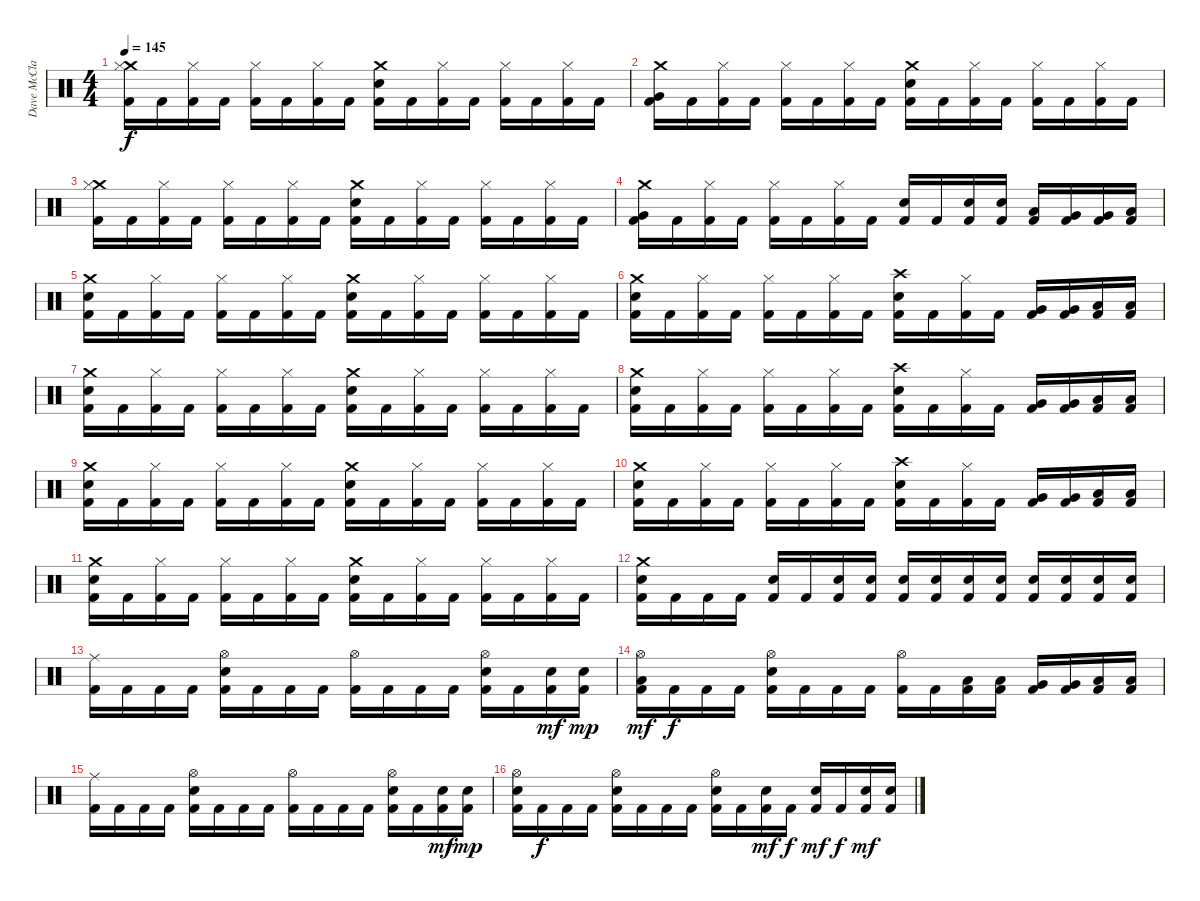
\track ("Dave McClain" "Dave McCla") {instrument percussion}
\staff {score}
\articulation defaults
\ts (4 4)
\tempo 145
\clef neutral
\ks c
("Crash medium (hit)" "Hi-Hat (closed)" "Kick (hit) 2").16{dy f} "Kick (hit) 2".16 ("Hi-Hat (closed)" "Kick (hit) 2").16 "Kick (hit) 2".16 ("Hi-Hat (closed)" "Kick (hit) 2").16 "Kick (hit) 2".16 ("Hi-Hat (closed)" "Kick (hit) 2").16 "Kick (hit) 2".16 ("Crash medium (hit)" "Snare (hit) 2" "Kick (hit) 2").16 "Kick (hit) 2".16 ("Hi-Hat (closed)" "Kick (hit) 2").16 "Kick (hit) 2".16 ("Hi-Hat (closed)" "Kick (hit) 2").16 "Kick (hit) 2".16 ("Hi-Hat (closed)" "Kick (hit) 2").16 "Kick (hit) 2".16 |
("Crash medium (hit)" "Very Low Tom (hit)" "Kick (hit) 2").16 "Kick (hit) 2".16 ("Hi-Hat (closed)" "Kick (hit) 2").16 "Kick (hit) 2".16 ("Hi-Hat (closed)" "Kick (hit) 2").16 "Kick (hit) 2".16 ("Hi-Hat (closed)" "Kick (hit) 2").16 "Kick (hit) 2".16 ("Crash medium (hit)" "Snare (hit) 2" "Kick (hit) 2").16 "Kick (hit) 2".16 ("Hi-Hat (closed)" "Kick (hit) 2").16 "Kick (hit) 2".16 ("Hi-Hat (closed)" "Kick (hit) 2").16 "Kick (hit) 2".16 ("Hi-Hat (closed)" "Kick (hit) 2").16 "Kick (hit) 2".16 |
("Crash medium (hit)" "Hi-Hat (closed)" "Kick (hit) 2").16 "Kick (hit) 2".16 ("Hi-Hat (closed)" "Kick (hit) 2").16 "Kick (hit) 2".16 ("Hi-Hat (closed)" "Kick (hit) 2").16 "Kick (hit) 2".16 ("Hi-Hat (closed)" "Kick (hit) 2").16 "Kick (hit) 2".16 ("Crash medium (hit)" "Snare (hit) 2" "Kick (hit) 2").16 "Kick (hit) 2".16 ("Hi-Hat (closed)" "Kick (hit) 2").16 "Kick (hit) 2".16 ("Hi-Hat (closed)" "Kick (hit) 2").16 "Kick (hit) 2".16 ("Hi-Hat (closed)" "Kick (hit) 2").16 "Kick (hit) 2".16 |
("Crash medium (hit)" "Very Low Tom (hit)" "Kick (hit) 2").16 "Kick (hit) 2".16 ("Hi-Hat (closed)" "Kick (hit) 2").16 "Kick (hit) 2".16 ("Hi-Hat (closed)" "Kick (hit) 2").16 "Kick (hit) 2".16 ("Hi-Hat (closed)" "Kick (hit) 2").16 "Kick (hit) 2".16 ("Snare (hit) 2" "Kick (hit) 2").16 "Kick (hit) 2".16 ("Snare (hit) 2" "Kick (hit) 2").16 ("Snare (hit) 2" "Kick (hit) 2").16 ("Low Tom (hit)" "Kick (hit) 2").16 ("Very Low Tom (hit)" "Kick (hit) 2").16 ("Very Low Tom (hit)" "Kick (hit) 2").16 ("Low Floor Tom (hit)" "Kick (hit) 2").16 |
("Crash medium (hit)" "Snare (hit) 2" "Kick (hit) 2").16 "Kick (hit) 2".16 ("Hi-Hat (closed)" "Kick (hit) 2").16 "Kick (hit) 2".16 ("Hi-Hat (closed)" "Kick (hit) 2").16 "Kick (hit) 2".16 ("Hi-Hat (closed)" "Kick (hit) 2").16 "Kick (hit) 2".16 ("Crash medium (hit)" "Snare (hit) 2" "Kick (hit) 2").16 "Kick (hit) 2".16 ("Hi-Hat (closed)" "Kick (hit) 2").16 "Kick (hit) 2".16 ("Hi-Hat (closed)" "Kick (hit) 2").16 "Kick (hit) 2".16 ("Hi-Hat (closed)" "Kick (hit) 2").16 "Kick (hit) 2".16 |
("Crash medium (hit)" "Snare (hit) 2" "Kick (hit) 2").16 "Kick (hit) 2".16 ("Hi-Hat (closed)" "Kick (hit) 2").16 "Kick (hit) 2".16 ("Hi-Hat (closed)" "Kick (hit) 2").16 "Kick (hit) 2".16 ("Hi-Hat (closed)" "Kick (hit) 2").16 "Kick (hit) 2".16 ("Crash high (hit)" "Snare (hit) 2" "Kick (hit) 2").16 "Kick (hit) 2".16 ("Hi-Hat (closed)" "Kick (hit) 2").16 "Kick (hit) 2".16 ("Very Low Tom (hit)" "Kick (hit) 2").16 ("Very Low Tom (hit)" "Kick (hit) 2").16 ("Low Floor Tom (hit)" "Kick (hit) 2").16 ("Low Floor Tom (hit)" "Kick (hit) 2").16 |
("Crash medium (hit)" "Snare (hit) 2" "Kick (hit) 2").16 "Kick (hit) 2".16 ("Hi-Hat (closed)" "Kick (hit) 2").16 "Kick (hit) 2".16 ("Hi-Hat (closed)" "Kick (hit) 2").16 "Kick (hit) 2".16 ("Hi-Hat (closed)" "Kick (hit) 2").16 "Kick (hit) 2".16 ("Crash medium (hit)" "Snare (hit) 2" "Kick (hit) 2").16 "Kick (hit) 2".16 ("Hi-Hat (closed)" "Kick (hit) 2").16 "Kick (hit) 2".16 ("Hi-Hat (closed)" "Kick (hit) 2").16 "Kick (hit) 2".16 ("Hi-Hat (closed)" "Kick (hit) 2").16 "Kick (hit) 2".16 |
("Crash medium (hit)" "Snare (hit) 2" "Kick (hit) 2").16 "Kick (hit) 2".16 ("Hi-Hat (closed)" "Kick (hit) 2").16 "Kick (hit) 2".16 ("Hi-Hat (closed)" "Kick (hit) 2").16 "Kick (hit) 2".16 ("Hi-Hat (closed)" "Kick (hit) 2").16 "Kick (hit) 2".16 ("Crash high (hit)" "Snare (hit) 2" "Kick (hit) 2").16 "Kick (hit) 2".16 ("Hi-Hat (closed)" "Kick (hit) 2").16 "Kick (hit) 2".16 ("Very Low Tom (hit)" "Kick (hit) 2").16 ("Very Low Tom (hit)" "Kick (hit) 2").16 ("Low Floor Tom (hit)" "Kick (hit) 2").16 ("Low Floor Tom (hit)" "Kick (hit) 2").16 |
("Crash medium (hit)" "Snare (hit) 2" "Kick (hit) 2").16 "Kick (hit) 2".16 ("Hi-Hat (closed)" "Kick (hit) 2").16 "Kick (hit) 2".16 ("Hi-Hat (closed)" "Kick (hit) 2").16 "Kick (hit) 2".16 ("Hi-Hat (closed)" "Kick (hit) 2").16 "Kick (hit) 2".16 ("Crash medium (hit)" "Snare (hit) 2" "Kick (hit) 2").16 "Kick (hit) 2".16 ("Hi-Hat (closed)" "Kick (hit) 2").16 "Kick (hit) 2".16 ("Hi-Hat (closed)" "Kick (hit) 2").16 "Kick (hit) 2".16 ("Hi-Hat (closed)" "Kick (hit) 2").16 "Kick (hit) 2".16 |
("Crash medium (hit)" "Snare (hit) 2" "Kick (hit) 2").16 "Kick (hit) 2".16 ("Hi-Hat (closed)" "Kick (hit) 2").16 "Kick (hit) 2".16 ("Hi-Hat (closed)" "Kick (hit) 2").16 "Kick (hit) 2".16 ("Hi-Hat (closed)" "Kick (hit) 2").16 "Kick (hit) 2".16 ("Crash high (hit)" "Snare (hit) 2" "Kick (hit) 2").16 "Kick (hit) 2".16 ("Hi-Hat (closed)" "Kick (hit) 2").16 "Kick (hit) 2".16 ("Very Low Tom (hit)" "Kick (hit) 2").16 ("Very Low Tom (hit)" "Kick (hit) 2").16 ("Low Floor Tom (hit)" "Kick (hit) 2").16 ("Low Floor Tom (hit)" "Kick (hit) 2").16 |
("Crash medium (hit)" "Snare (hit) 2" "Kick (hit) 2").16 "Kick (hit) 2".16 ("Hi-Hat (closed)" "Kick (hit) 2").16 "Kick (hit) 2".16 ("Hi-Hat (closed)" "Kick (hit) 2").16 "Kick (hit) 2".16 ("Hi-Hat (closed)" "Kick (hit) 2").16 "Kick (hit) 2".16 ("Crash medium (hit)" "Snare (hit) 2" "Kick (hit) 2").16 "Kick (hit) 2".16 ("Hi-Hat (closed)" "Kick (hit) 2").16 "Kick (hit) 2".16 ("Hi-Hat (closed)" "Kick (hit) 2").16 "Kick (hit) 2".16 ("Hi-Hat (closed)" "Kick (hit) 2").16 "Kick (hit) 2".16 |
("Crash medium (hit)" "Snare (hit) 2" "Kick (hit) 2").16 "Kick (hit) 2".16 "Kick (hit) 2".16 "Kick (hit) 2".16 ("Snare (hit) 2" "Kick (hit) 2").16 "Kick (hit) 2".16 ("Snare (hit) 2" "Kick (hit) 2").16 ("Snare (hit) 2" "Kick (hit) 2").16 ("Electric Snare (hit)" "Kick (hit) 2").16 ("Electric Snare (hit)" "Kick (hit) 2").16 ("Electric Snare (hit)" "Kick (hit) 2").16 ("Electric Snare (hit)" "Kick (hit) 2").16 ("Electric Snare (hit)" "Kick (hit) 2").16 ("Electric Snare (hit)" "Kick (hit) 2").16 ("Electric Snare (hit)" "Kick (hit) 2").16 ("Electric Snare (hit)" "Kick (hit) 2").16 |
("Ride (middle)" "Kick (hit) 2").16 "Kick (hit) 2".16 "Kick (hit) 2".16 "Kick (hit) 2".16 ("Hi-Hat (open)" "Snare (hit) 2" "Kick (hit) 2").16 "Kick (hit) 2".16 "Kick (hit) 2".16 "Kick (hit) 2".16 ("Hi-Hat (open)" "Kick (hit) 2").16 "Kick (hit) 2".16 "Kick (hit) 2".16 "Kick (hit) 2".16 ("Hi-Hat (open)" "Snare (hit) 2" "Kick (hit) 2").16 "Kick (hit) 2".16 ("Snare (hit) 2" "Kick (hit) 2").16{dy mf} ("Electric Snare (hit)" "Kick (hit) 2").16{dy mp} |
("Hi-Hat (open)" "Low Tom (hit)" "Kick (hit) 2").16{dy mf} "Kick (hit) 2".16{dy f} "Kick (hit) 2".16 "Kick (hit) 2".16 ("Hi-Hat (open)" "Snare (hit) 2" "Kick (hit) 2").16 "Kick (hit) 2".16 "Kick (hit) 2".16 "Kick (hit) 2".16 ("Hi-Hat (open)" "Kick (hit) 2").16 "Kick (hit) 2".16 ("Low Floor Tom (hit)" "Kick (hit) 2").16 ("Low Floor Tom (hit)" "Kick (hit) 2").16 ("Very Low Tom (hit)" "Kick (hit) 2").16 ("Very Low Tom (hit)" "Kick (hit) 2").16 ("Low Floor Tom (hit)" "Kick (hit) 2").16 ("Low Floor Tom (hit)" "Kick (hit) 2").16 |
("Ride (middle)" "Kick (hit) 2").16 "Kick (hit) 2".16 "Kick (hit) 2".16 "Kick (hit) 2".16 ("Hi-Hat (open)" "Snare (hit) 2" "Kick (hit) 2").16 "Kick (hit) 2".16 "Kick (hit) 2".16 "Kick (hit) 2".16 ("Hi-Hat (open)" "Kick (hit) 2").16 "Kick (hit) 2".16 "Kick (hit) 2".16 "Kick (hit) 2".16 ("Hi-Hat (open)" "Snare (hit) 2" "Kick (hit) 2").16 "Kick (hit) 2".16 ("Snare (hit) 2" "Kick (hit) 2").16{dy mf} ("Electric Snare (hit)" "Kick (hit) 2").16{dy mp} |
("Hi-Hat (open)" "Snare (hit) 2" "Kick (hit) 2").16 "Kick (hit) 2".16{dy f} "Kick (hit) 2".16 "Kick (hit) 2".16 ("Hi-Hat (open)" "Snare (hit) 2" "Kick (hit) 2").16 "Kick (hit) 2".16 "Kick (hit) 2".16 "Kick (hit) 2".16 ("Hi-Hat (open)" "Snare (hit) 2" "Kick (hit) 2").16 "Kick (hit) 2".16 ("Electric Snare (hit)" "Kick (hit) 2").16{dy mf} "Kick (hit) 2".16{dy f} ("Electric Snare (hit)" "Kick (hit) 2").16{dy mf} "Kick (hit) 2".16{dy f} ("Snare (hit) 2" "Kick (hit) 2").16{dy mf} ("Snare (hit) 2" "Kick (hit) 2").16
